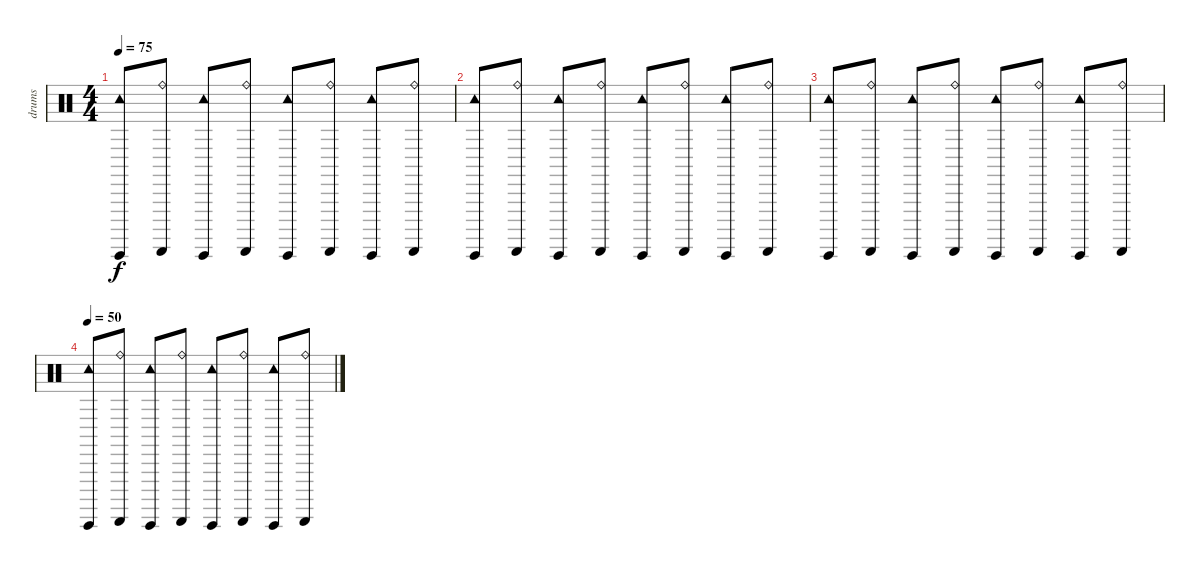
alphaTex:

\track ("drums" "drums") {instrument percussion}
\staff {score}
\articulation defaults
\ts (4 4)
\tempo 75
\clef neutral
\ks c
("Tambourine (hit)" "Guiro (hit)").8{dy f volume 13} ("Ride (bell)" "Guiro (scrap-return)").8 ("Tambourine (hit)" "Guiro (hit)").8 ("Ride (bell)" "Guiro (scrap-return)").8 ("Tambourine (hit)" "Guiro (hit)").8 ("Ride (bell)" "Guiro (scrap-return)").8 ("Tambourine (hit)" "Guiro (hit)").8 ("Ride (bell)" "Guiro (scrap-return)").8 |
("Tambourine (hit)" "Guiro (hit)").8{volume 13} ("Ride (bell)" "Guiro (scrap-return)").8 ("Tambourine (hit)" "Guiro (hit)").8 ("Ride (bell)" "Guiro (scrap-return)").8 ("Tambourine (hit)" "Guiro (hit)").8 ("Ride (bell)" "Guiro (scrap-return)").8 ("Tambourine (hit)" "Guiro (hit)").8 ("Ride (bell)" "Guiro (scrap-return)").8 |
("Tambourine (hit)" "Guiro (hit)").8{volume 13} ("Ride (bell)" "Guiro (scrap-return)").8 ("Tambourine (hit)" "Guiro (hit)").8 ("Ride (bell)" "Guiro (scrap-return)").8 ("Tambourine (hit)" "Guiro (hit)").8 ("Ride (bell)" "Guiro (scrap-return)").8 ("Tambourine (hit)" "Guiro (hit)").8 ("Ride (bell)" "Guiro (scrap-return)").8 |
\tempo 50
("Tambourine (hit)" "Guiro (hit)").8{volume 13} ("Ride (bell)" "Guiro (scrap-return)").8 ("Tambourine (hit)" "Guiro (hit)").8 ("Ride (bell)" "Guiro (scrap-return)").8 ("Tambourine (hit)" "Guiro (hit)").8 ("Ride (bell)" "Guiro (scrap-return)").8 ("Tambourine (hit)" "Guiro (hit)").8 ("Ride (bell)" "Guiro (scrap-return)").8
